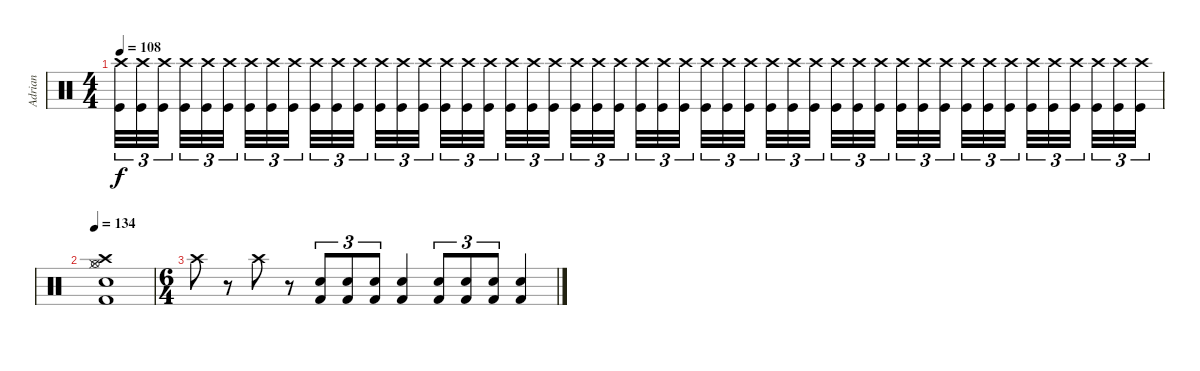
\track ("Adrian" "Adrian") {instrument percussion}
\staff {score}
\articulation defaults
\ts (4 4)
\tempo 108
\clef neutral
\ks c
("Kick (hit)" "Crash high (hit)").32{tu (3 2) dy f} ("Kick (hit)" "Crash high (hit)").32{tu (3 2)} ("Kick (hit)" "Crash high (hit)").32{tu (3 2)} ("Kick (hit)" "Crash high (hit)").32{tu (3 2)} ("Kick (hit)" "Crash high (hit)").32{tu (3 2)} ("Kick (hit)" "Crash high (hit)").32{tu (3 2)} ("Kick (hit)" "Crash high (hit)").32{tu (3 2)} ("Kick (hit)" "Crash high (hit)").32{tu (3 2)} ("Kick (hit)" "Crash high (hit)").32{tu (3 2)} ("Kick (hit)" "Crash high (hit)").32{tu (3 2)} ("Kick (hit)" "Crash high (hit)").32{tu (3 2)} ("Kick (hit)" "Crash high (hit)").32{tu (3 2)} ("Kick (hit)" "Crash high (hit)").32{tu (3 2)} ("Kick (hit)" "Crash high (hit)").32{tu (3 2)} ("Kick (hit)" "Crash high (hit)").32{tu (3 2)} ("Kick (hit)" "Crash high (hit)").32{tu (3 2)} ("Kick (hit)" "Crash high (hit)").32{tu (3 2)} ("Kick (hit)" "Crash high (hit)").32{tu (3 2)} ("Kick (hit)" "Crash high (hit)").32{tu (3 2)} ("Kick (hit)" "Crash high (hit)").32{tu (3 2)} ("Kick (hit)" "Crash high (hit)").32{tu (3 2)} ("Kick (hit)" "Crash high (hit)").32{tu (3 2)} ("Kick (hit)" "Crash high (hit)").32{tu (3 2)} ("Kick (hit)" "Crash high (hit)").32{tu (3 2)} ("Kick (hit)" "Crash high (hit)").32{tu (3 2)} ("Kick (hit)" "Crash high (hit)").32{tu (3 2)} ("Kick (hit)" "Crash high (hit)").32{tu (3 2)} ("Kick (hit)" "Crash high (hit)").32{tu (3 2)} ("Kick (hit)" "Crash high (hit)").32{tu (3 2)} ("Kick (hit)" "Crash high (hit)").32{tu (3 2)} ("Kick (hit)" "Crash high (hit)").32{tu (3 2)} ("Kick (hit)" "Crash high (hit)").32{tu (3 2)} ("Kick (hit)" "Crash high (hit)").32{tu (3 2)} ("Kick (hit)" "Crash high (hit)").32{tu (3 2)} ("Kick (hit)" "Crash high (hit)").32{tu (3 2)} ("Kick (hit)" "Crash high (hit)").32{tu (3 2)} ("Kick (hit)" "Crash high (hit)").32{tu (3 2)} ("Kick (hit)" "Crash high (hit)").32{tu (3 2)} ("Kick (hit)" "Crash high (hit)").32{tu (3 2)} ("Kick (hit)" "Crash high (hit)").32{tu (3 2)} ("Kick (hit)" "Crash high (hit)").32{tu (3 2)} ("Kick (hit)" "Crash high (hit)").32{tu (3 2)} ("Kick (hit)" "Crash high (hit)").32{tu (3 2)} ("Kick (hit)" "Crash high (hit)").32{tu (3 2)} ("Kick (hit)" "Crash high (hit)").32{tu (3 2)} ("Kick (hit)" "Crash high (hit)").32{tu (3 2)} ("Kick (hit)" "Crash high (hit)").32{tu (3 2)} ("Kick (hit)" "Crash high (hit)").32{tu (3 2)} |
\tempo 134
("Kick (hit) 2" "Snare (hit) 2" "Hi-Hat (closed)" "Hi-Hat (open)" "Crash high (hit)").1 |
\ts (6 4)
"Crash high (hit)".8 r.8 "Crash high (hit)".8 r.8 ("Snare (hit) 2" "Kick (hit) 2").8{tu (3 2)} ("Snare (hit) 2" "Kick (hit) 2").8{tu (3 2)} ("Snare (hit) 2" "Kick (hit) 2").8{tu (3 2)} ("Snare (hit) 2" "Kick (hit) 2").4 ("Snare (hit) 2" "Kick (hit) 2").8{tu (3 2)} ("Snare (hit) 2" "Kick (hit) 2").8{tu (3 2)} ("Snare (hit) 2" "Kick (hit) 2").8{tu (3 2)} ("Snare (hit) 2" "Kick (hit) 2").4
